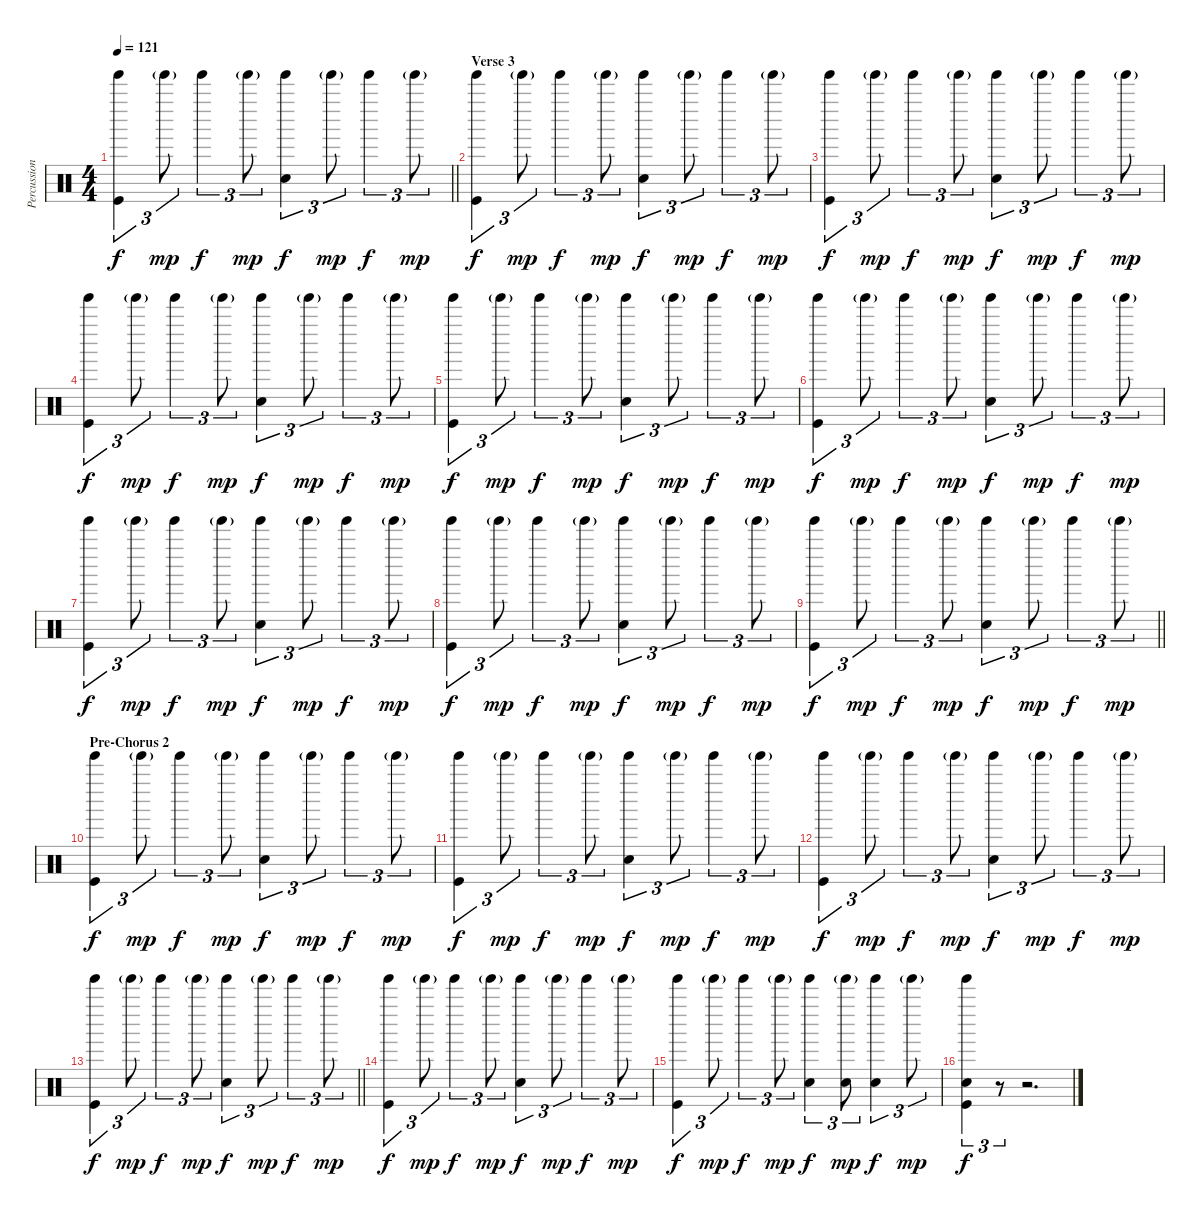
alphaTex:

\track ("Percussion" "Percussion") {instrument percussion}
\staff
\articulation defaults
\ts (4 4)
\tempo 121
\clef neutral
\barLineRight lightlight
\ks c
("Tinkle Bell (hit)" "Kick (hit)").4{tu (3 2) dy f} "Tinkle Bell (hit)"{g}.8{tu (3 2) dy mp} "Tinkle Bell (hit)".4{tu (3 2) dy f} "Tinkle Bell (hit)"{g}.8{tu (3 2) dy mp} ("Electric Snare (hit)" "Tinkle Bell (hit)").4{tu (3 2) dy f} "Tinkle Bell (hit)"{g}.8{tu (3 2) dy mp} "Tinkle Bell (hit)".4{tu (3 2) dy f} "Tinkle Bell (hit)"{g}.8{tu (3 2) dy mp} |
\section ("" "Verse 3")
("Tinkle Bell (hit)" "Kick (hit)").4{tu (3 2) dy f} "Tinkle Bell (hit)"{g}.8{tu (3 2) dy mp} "Tinkle Bell (hit)".4{tu (3 2) dy f} "Tinkle Bell (hit)"{g}.8{tu (3 2) dy mp} ("Electric Snare (hit)" "Tinkle Bell (hit)").4{tu (3 2) dy f} "Tinkle Bell (hit)"{g}.8{tu (3 2) dy mp} "Tinkle Bell (hit)".4{tu (3 2) dy f} "Tinkle Bell (hit)"{g}.8{tu (3 2) dy mp} |
("Tinkle Bell (hit)" "Kick (hit)").4{tu (3 2) dy f} "Tinkle Bell (hit)"{g}.8{tu (3 2) dy mp} "Tinkle Bell (hit)".4{tu (3 2) dy f} "Tinkle Bell (hit)"{g}.8{tu (3 2) dy mp} ("Electric Snare (hit)" "Tinkle Bell (hit)").4{tu (3 2) dy f} "Tinkle Bell (hit)"{g}.8{tu (3 2) dy mp} "Tinkle Bell (hit)".4{tu (3 2) dy f} "Tinkle Bell (hit)"{g}.8{tu (3 2) dy mp} |
("Tinkle Bell (hit)" "Kick (hit)").4{tu (3 2) dy f} "Tinkle Bell (hit)"{g}.8{tu (3 2) dy mp} "Tinkle Bell (hit)".4{tu (3 2) dy f} "Tinkle Bell (hit)"{g}.8{tu (3 2) dy mp} ("Electric Snare (hit)" "Tinkle Bell (hit)").4{tu (3 2) dy f} "Tinkle Bell (hit)"{g}.8{tu (3 2) dy mp} "Tinkle Bell (hit)".4{tu (3 2) dy f} "Tinkle Bell (hit)"{g}.8{tu (3 2) dy mp} |
("Tinkle Bell (hit)" "Kick (hit)").4{tu (3 2) dy f} "Tinkle Bell (hit)"{g}.8{tu (3 2) dy mp} "Tinkle Bell (hit)".4{tu (3 2) dy f} "Tinkle Bell (hit)"{g}.8{tu (3 2) dy mp} ("Electric Snare (hit)" "Tinkle Bell (hit)").4{tu (3 2) dy f} "Tinkle Bell (hit)"{g}.8{tu (3 2) dy mp} "Tinkle Bell (hit)".4{tu (3 2) dy f} "Tinkle Bell (hit)"{g}.8{tu (3 2) dy mp} |
("Tinkle Bell (hit)" "Kick (hit)").4{tu (3 2) dy f} "Tinkle Bell (hit)"{g}.8{tu (3 2) dy mp} "Tinkle Bell (hit)".4{tu (3 2) dy f} "Tinkle Bell (hit)"{g}.8{tu (3 2) dy mp} ("Electric Snare (hit)" "Tinkle Bell (hit)").4{tu (3 2) dy f} "Tinkle Bell (hit)"{g}.8{tu (3 2) dy mp} "Tinkle Bell (hit)".4{tu (3 2) dy f} "Tinkle Bell (hit)"{g}.8{tu (3 2) dy mp} |
("Tinkle Bell (hit)" "Kick (hit)").4{tu (3 2) dy f} "Tinkle Bell (hit)"{g}.8{tu (3 2) dy mp} "Tinkle Bell (hit)".4{tu (3 2) dy f} "Tinkle Bell (hit)"{g}.8{tu (3 2) dy mp} ("Electric Snare (hit)" "Tinkle Bell (hit)").4{tu (3 2) dy f} "Tinkle Bell (hit)"{g}.8{tu (3 2) dy mp} "Tinkle Bell (hit)".4{tu (3 2) dy f} "Tinkle Bell (hit)"{g}.8{tu (3 2) dy mp} |
("Tinkle Bell (hit)" "Kick (hit)").4{tu (3 2) dy f} "Tinkle Bell (hit)"{g}.8{tu (3 2) dy mp} "Tinkle Bell (hit)".4{tu (3 2) dy f} "Tinkle Bell (hit)"{g}.8{tu (3 2) dy mp} ("Electric Snare (hit)" "Tinkle Bell (hit)").4{tu (3 2) dy f} "Tinkle Bell (hit)"{g}.8{tu (3 2) dy mp} "Tinkle Bell (hit)".4{tu (3 2) dy f} "Tinkle Bell (hit)"{g}.8{tu (3 2) dy mp} |
\barLineRight lightlight
("Tinkle Bell (hit)" "Kick (hit)").4{tu (3 2) dy f} "Tinkle Bell (hit)"{g}.8{tu (3 2) dy mp} "Tinkle Bell (hit)".4{tu (3 2) dy f} "Tinkle Bell (hit)"{g}.8{tu (3 2) dy mp} ("Electric Snare (hit)" "Tinkle Bell (hit)").4{tu (3 2) dy f} "Tinkle Bell (hit)"{g}.8{tu (3 2) dy mp} "Tinkle Bell (hit)".4{tu (3 2) dy f} "Tinkle Bell (hit)"{g}.8{tu (3 2) dy mp} |
\section ("" "Pre-Chorus 2")
("Tinkle Bell (hit)" "Kick (hit)").4{tu (3 2) dy f} "Tinkle Bell (hit)"{g}.8{tu (3 2) dy mp} "Tinkle Bell (hit)".4{tu (3 2) dy f} "Tinkle Bell (hit)"{g}.8{tu (3 2) dy mp} ("Electric Snare (hit)" "Tinkle Bell (hit)").4{tu (3 2) dy f} "Tinkle Bell (hit)"{g}.8{tu (3 2) dy mp} "Tinkle Bell (hit)".4{tu (3 2) dy f} "Tinkle Bell (hit)"{g}.8{tu (3 2) dy mp} |
("Tinkle Bell (hit)" "Kick (hit)").4{tu (3 2) dy f} "Tinkle Bell (hit)"{g}.8{tu (3 2) dy mp} "Tinkle Bell (hit)".4{tu (3 2) dy f} "Tinkle Bell (hit)"{g}.8{tu (3 2) dy mp} ("Electric Snare (hit)" "Tinkle Bell (hit)").4{tu (3 2) dy f} "Tinkle Bell (hit)"{g}.8{tu (3 2) dy mp} "Tinkle Bell (hit)".4{tu (3 2) dy f} "Tinkle Bell (hit)"{g}.8{tu (3 2) dy mp} |
("Tinkle Bell (hit)" "Kick (hit)").4{tu (3 2) dy f} "Tinkle Bell (hit)"{g}.8{tu (3 2) dy mp} "Tinkle Bell (hit)".4{tu (3 2) dy f} "Tinkle Bell (hit)"{g}.8{tu (3 2) dy mp} ("Electric Snare (hit)" "Tinkle Bell (hit)").4{tu (3 2) dy f} "Tinkle Bell (hit)"{g}.8{tu (3 2) dy mp} "Tinkle Bell (hit)".4{tu (3 2) dy f} "Tinkle Bell (hit)"{g}.8{tu (3 2) dy mp} |
\barLineRight lightlight
("Tinkle Bell (hit)" "Kick (hit)").4{tu (3 2) dy f} "Tinkle Bell (hit)"{g}.8{tu (3 2) dy mp} "Tinkle Bell (hit)".4{tu (3 2) dy f} "Tinkle Bell (hit)"{g}.8{tu (3 2) dy mp} ("Electric Snare (hit)" "Tinkle Bell (hit)").4{tu (3 2) dy f} "Tinkle Bell (hit)"{g}.8{tu (3 2) dy mp} "Tinkle Bell (hit)".4{tu (3 2) dy f} "Tinkle Bell (hit)"{g}.8{tu (3 2) dy mp} |
("Tinkle Bell (hit)" "Kick (hit)").4{tu (3 2) dy f} "Tinkle Bell (hit)"{g}.8{tu (3 2) dy mp} "Tinkle Bell (hit)".4{tu (3 2) dy f} "Tinkle Bell (hit)"{g}.8{tu (3 2) dy mp} ("Electric Snare (hit)" "Tinkle Bell (hit)").4{tu (3 2) dy f} "Tinkle Bell (hit)"{g}.8{tu (3 2) dy mp} "Tinkle Bell (hit)".4{tu (3 2) dy f} "Tinkle Bell (hit)"{g}.8{tu (3 2) dy mp} |
("Tinkle Bell (hit)" "Kick (hit)").4{tu (3 2) dy f} "Tinkle Bell (hit)"{g}.8{tu (3 2) dy mp} "Tinkle Bell (hit)".4{tu (3 2) dy f} "Tinkle Bell (hit)"{g}.8{tu (3 2) dy mp} ("Electric Snare (hit)" "Tinkle Bell (hit)").4{tu (3 2) dy f} ("Electric Snare (hit)" "Tinkle Bell (hit)"{g}).8{tu (3 2) dy mp} ("Electric Snare (hit)" "Tinkle Bell (hit)").4{tu (3 2) dy f} "Tinkle Bell (hit)"{g}.8{tu (3 2) dy mp} |
("Electric Snare (hit)" "Tinkle Bell (hit)" "Kick (hit)").4{tu (3 2) dy f} r.8{tu (3 2)} r.2{d}
